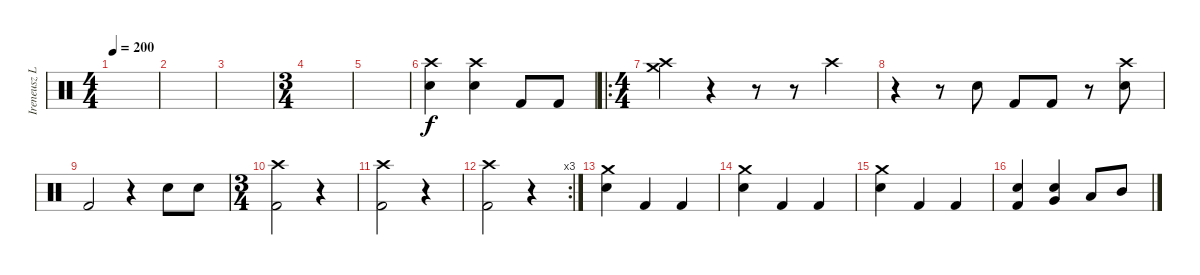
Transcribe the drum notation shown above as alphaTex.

\track ("Ireneusz Loth -Drums" "Ireneusz L") {instrument percussion}
\staff {score}
\articulation defaults
\ts (4 4)
\tempo 200
\clef neutral
\ks c
|
|
|
\ts (3 4)
|
|
("Crash high (hit)" "Snare (hit) 2").4 ("Crash high (hit)" "Snare (hit) 2").4 "Kick (hit) 2".8 "Kick (hit) 2".8 |
\ro
\ts (4 4)
("Crash medium (hit)" "Crash high (hit)").4 r.4 r.8 r.8 "Crash high (hit)".4 |
r.4 r.8 "Snare (hit) 2".8 "Kick (hit) 2".8 "Kick (hit) 2".8 r.8 ("Crash high (hit)" "Snare (hit) 2").8 |
"Kick (hit) 2".2 r.4 "Snare (hit) 2".8 "Snare (hit) 2".8 |
\ts (3 4)
("Kick (hit) 2" "Crash high (hit)").2 r.4 |
("Kick (hit) 2" "Crash high (hit)").2 r.4 |
\rc 3
("Kick (hit) 2" "Crash high (hit)").2 r.4 |
("Snare (hit) 2" "Crash medium (hit)").4 "Kick (hit) 2".4 "Kick (hit) 2".4 |
("Snare (hit) 2" "Crash medium (hit)").4 "Kick (hit) 2".4 "Kick (hit) 2".4 |
("Snare (hit) 2" "Crash medium (hit)").4 "Kick (hit) 2".4 "Kick (hit) 2".4 |
("Snare (hit) 2" "Kick (hit) 2").4 ("Very Low Tom (hit)" "Snare (hit) 2").4 "Low Tom (hit)".8 "Mid Tom (hit)".8
